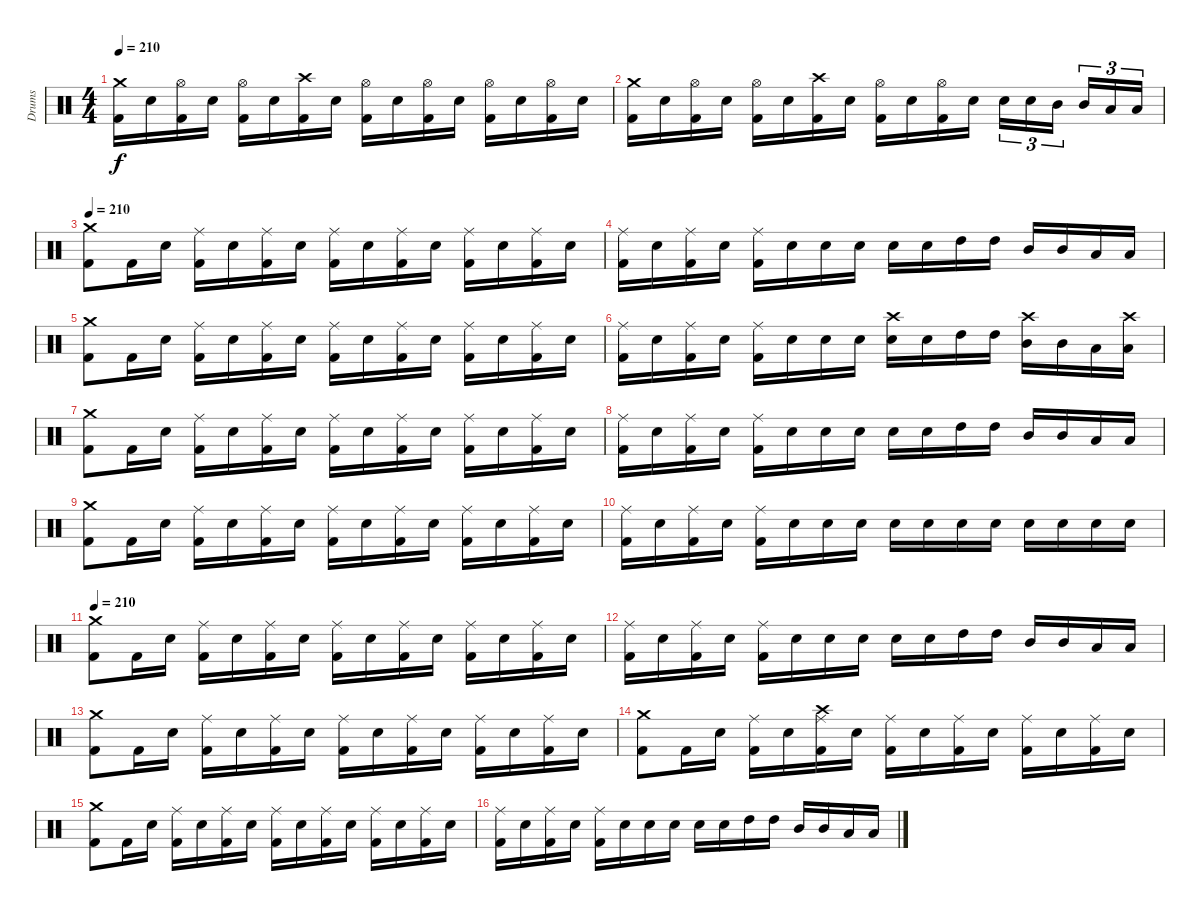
\track ("Drums" "Drums") {instrument percussion}
\staff {score}
\articulation defaults
\ts (4 4)
\tempo 210
\clef neutral
\ks c
("Kick (hit) 2" "Crash medium (hit)").16{dy f} "Electric Snare (hit)".16 ("Kick (hit) 2" "Hi-Hat (open)").16 "Electric Snare (hit)".16 ("Kick (hit) 2" "Hi-Hat (open)").16 "Electric Snare (hit)".16 ("Kick (hit) 2" "Crash high (hit)").16 "Electric Snare (hit)".16 ("Kick (hit) 2" "Hi-Hat (open)").16 "Electric Snare (hit)".16 ("Kick (hit) 2" "Hi-Hat (open)").16 "Electric Snare (hit)".16 ("Kick (hit) 2" "Hi-Hat (open)").16 "Electric Snare (hit)".16 ("Kick (hit) 2" "Hi-Hat (open)").16 "Electric Snare (hit)".16 |
("Kick (hit) 2" "Crash medium (hit)").16 "Electric Snare (hit)".16 ("Kick (hit) 2" "Hi-Hat (open)").16 "Electric Snare (hit)".16 ("Kick (hit) 2" "Hi-Hat (open)").16 "Electric Snare (hit)".16 ("Kick (hit) 2" "Crash high (hit)").16 "Electric Snare (hit)".16 ("Kick (hit) 2" "Hi-Hat (open)").16 "Electric Snare (hit)".16 ("Kick (hit) 2" "Hi-Hat (open)").16 "Electric Snare (hit)".16 "Electric Snare (hit)".16{tu (3 2)} "Electric Snare (hit)".16{tu (3 2)} "Mid Tom (hit)".16{tu (3 2)} "Mid Tom (hit)".16{tu (3 2)} "Low Tom (hit)".16{tu (3 2)} "Low Tom (hit)".16{tu (3 2)} |
\tempo 210
("Kick (hit) 2" "Crash medium (hit)").8 "Kick (hit) 2".16 "Electric Snare (hit)".16 ("Kick (hit) 2" "Ride (middle)").16 "Electric Snare (hit)".16 ("Kick (hit) 2" "Ride (middle)").16 "Electric Snare (hit)".16 ("Kick (hit) 2" "Ride (middle)").16 "Electric Snare (hit)".16 ("Kick (hit) 2" "Ride (middle)").16 "Electric Snare (hit)".16 ("Kick (hit) 2" "Ride (middle)").16 "Electric Snare (hit)".16 ("Kick (hit) 2" "Ride (middle)").16 "Electric Snare (hit)".16 |
("Kick (hit) 2" "Ride (middle)").16 "Electric Snare (hit)".16 ("Kick (hit) 2" "Ride (middle)").16 "Electric Snare (hit)".16 ("Kick (hit) 2" "Ride (middle)").16 "Electric Snare (hit)".16 "Electric Snare (hit)".16 "Electric Snare (hit)".16 "Electric Snare (hit)".16 "Electric Snare (hit)".16 "High Tom (hit)".16 "High Tom (hit)".16 "Mid Tom (hit)".16 "Mid Tom (hit)".16 "Low Tom (hit)".16 "Low Tom (hit)".16 |
("Kick (hit) 2" "Crash medium (hit)").8 "Kick (hit) 2".16 "Electric Snare (hit)".16 ("Kick (hit) 2" "Ride (middle)").16 "Electric Snare (hit)".16 ("Kick (hit) 2" "Ride (middle)").16 "Electric Snare (hit)".16 ("Kick (hit) 2" "Ride (middle)").16 "Electric Snare (hit)".16 ("Kick (hit) 2" "Ride (middle)").16 "Electric Snare (hit)".16 ("Kick (hit) 2" "Ride (middle)").16 "Electric Snare (hit)".16 ("Kick (hit) 2" "Ride (middle)").16 "Electric Snare (hit)".16 |
("Kick (hit) 2" "Ride (middle)").16 "Electric Snare (hit)".16 ("Kick (hit) 2" "Ride (middle)").16 "Electric Snare (hit)".16 ("Kick (hit) 2" "Ride (middle)").16 "Electric Snare (hit)".16 "Electric Snare (hit)".16 "Electric Snare (hit)".16 ("Crash high (hit)" "Electric Snare (hit)").16 "Electric Snare (hit)".16 "High Tom (hit)".16 "High Tom (hit)".16 ("Crash high (hit)" "Mid Tom (hit)").16 "Mid Tom (hit)".16 "Low Tom (hit)".16 ("Crash high (hit)" "Low Tom (hit)").16 |
("Kick (hit) 2" "Crash medium (hit)").8 "Kick (hit) 2".16 "Electric Snare (hit)".16 ("Kick (hit) 2" "Ride (middle)").16 "Electric Snare (hit)".16 ("Kick (hit) 2" "Ride (middle)").16 "Electric Snare (hit)".16 ("Kick (hit) 2" "Ride (middle)").16 "Electric Snare (hit)".16 ("Kick (hit) 2" "Ride (middle)").16 "Electric Snare (hit)".16 ("Kick (hit) 2" "Ride (middle)").16 "Electric Snare (hit)".16 ("Kick (hit) 2" "Ride (middle)").16 "Electric Snare (hit)".16 |
("Kick (hit) 2" "Ride (middle)").16 "Electric Snare (hit)".16 ("Kick (hit) 2" "Ride (middle)").16 "Electric Snare (hit)".16 ("Kick (hit) 2" "Ride (middle)").16 "Electric Snare (hit)".16 "Electric Snare (hit)".16 "Electric Snare (hit)".16 "Electric Snare (hit)".16 "Electric Snare (hit)".16 "High Tom (hit)".16 "High Tom (hit)".16 "Mid Tom (hit)".16 "Mid Tom (hit)".16 "Low Tom (hit)".16 "Low Tom (hit)".16 |
("Kick (hit) 2" "Crash medium (hit)").8 "Kick (hit) 2".16 "Electric Snare (hit)".16 ("Kick (hit) 2" "Ride (middle)").16 "Electric Snare (hit)".16 ("Kick (hit) 2" "Ride (middle)").16 "Electric Snare (hit)".16 ("Kick (hit) 2" "Ride (middle)").16 "Electric Snare (hit)".16 ("Kick (hit) 2" "Ride (middle)").16 "Electric Snare (hit)".16 ("Kick (hit) 2" "Ride (middle)").16 "Electric Snare (hit)".16 ("Kick (hit) 2" "Ride (middle)").16 "Electric Snare (hit)".16 |
("Kick (hit) 2" "Ride (middle)").16 "Electric Snare (hit)".16 ("Kick (hit) 2" "Ride (middle)").16 "Electric Snare (hit)".16 ("Kick (hit) 2" "Ride (middle)").16 "Electric Snare (hit)".16 "Electric Snare (hit)".16 "Electric Snare (hit)".16 "Electric Snare (hit)".16 "Electric Snare (hit)".16 "Electric Snare (hit)".16 "Electric Snare (hit)".16 "Electric Snare (hit)".16 "Electric Snare (hit)".16 "Electric Snare (hit)".16 "Electric Snare (hit)".16 |
\tempo 210
("Kick (hit) 2" "Crash medium (hit)").8 "Kick (hit) 2".16 "Electric Snare (hit)".16 ("Kick (hit) 2" "Ride (middle)").16 "Electric Snare (hit)".16 ("Kick (hit) 2" "Ride (middle)").16 "Electric Snare (hit)".16 ("Kick (hit) 2" "Ride (middle)").16 "Electric Snare (hit)".16 ("Kick (hit) 2" "Ride (middle)").16 "Electric Snare (hit)".16 ("Kick (hit) 2" "Ride (middle)").16 "Electric Snare (hit)".16 ("Kick (hit) 2" "Ride (middle)").16 "Electric Snare (hit)".16 |
("Kick (hit) 2" "Ride (middle)").16 "Electric Snare (hit)".16 ("Kick (hit) 2" "Ride (middle)").16 "Electric Snare (hit)".16 ("Kick (hit) 2" "Ride (middle)").16 "Electric Snare (hit)".16 "Electric Snare (hit)".16 "Electric Snare (hit)".16 "Electric Snare (hit)".16 "Electric Snare (hit)".16 "High Tom (hit)".16 "High Tom (hit)".16 "Mid Tom (hit)".16 "Mid Tom (hit)".16 "Low Tom (hit)".16 "Low Tom (hit)".16 |
("Kick (hit) 2" "Crash medium (hit)").8 "Kick (hit) 2".16 "Electric Snare (hit)".16 ("Kick (hit) 2" "Ride (middle)").16 "Electric Snare (hit)".16 ("Kick (hit) 2" "Ride (middle)").16 "Electric Snare (hit)".16 ("Kick (hit) 2" "Ride (middle)").16 "Electric Snare (hit)".16 ("Kick (hit) 2" "Ride (middle)").16 "Electric Snare (hit)".16 ("Kick (hit) 2" "Ride (middle)").16 "Electric Snare (hit)".16 ("Kick (hit) 2" "Ride (middle)").16 "Electric Snare (hit)".16 |
("Kick (hit) 2" "Crash medium (hit)").8 "Kick (hit) 2".16 "Electric Snare (hit)".16 ("Kick (hit) 2" "Ride (middle)").16 "Electric Snare (hit)".16 ("Kick (hit) 2" "Ride (middle)" "Crash high (hit)").16 "Electric Snare (hit)".16 ("Kick (hit) 2" "Ride (middle)").16 "Electric Snare (hit)".16 ("Kick (hit) 2" "Ride (middle)").16 "Electric Snare (hit)".16 ("Kick (hit) 2" "Ride (middle)").16 "Electric Snare (hit)".16 ("Kick (hit) 2" "Ride (middle)").16 "Electric Snare (hit)".16 |
("Kick (hit) 2" "Crash medium (hit)").8 "Kick (hit) 2".16 "Electric Snare (hit)".16 ("Kick (hit) 2" "Ride (middle)").16 "Electric Snare (hit)".16 ("Kick (hit) 2" "Ride (middle)").16 "Electric Snare (hit)".16 ("Kick (hit) 2" "Ride (middle)").16 "Electric Snare (hit)".16 ("Kick (hit) 2" "Ride (middle)").16 "Electric Snare (hit)".16 ("Kick (hit) 2" "Ride (middle)").16 "Electric Snare (hit)".16 ("Kick (hit) 2" "Ride (middle)").16 "Electric Snare (hit)".16 |
("Kick (hit) 2" "Ride (middle)").16 "Electric Snare (hit)".16 ("Kick (hit) 2" "Ride (middle)").16 "Electric Snare (hit)".16 ("Kick (hit) 2" "Ride (middle)").16 "Electric Snare (hit)".16 "Electric Snare (hit)".16 "Electric Snare (hit)".16 "Electric Snare (hit)".16 "Electric Snare (hit)".16 "High Tom (hit)".16 "High Tom (hit)".16 "Mid Tom (hit)".16 "Mid Tom (hit)".16 "Low Tom (hit)".16 "Low Tom (hit)".16
